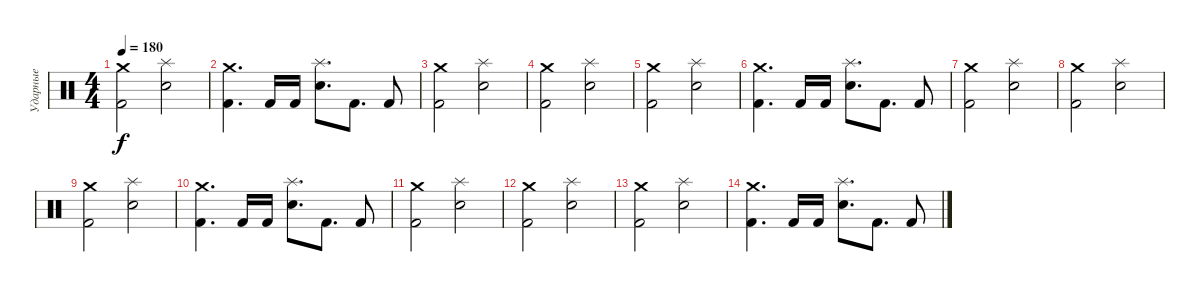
\track ("Ударные" "Ударные") {instrument percussion bank 127}
\staff {score}
\articulation defaults
\ts (4 4)
\tempo 180
\clef neutral
\ks c
("Crash medium (hit)" "Kick (hit) 2").2{dy f} ("Splash (hit)" "Snare (hit) 2").2 |
("Crash medium (hit)" "Kick (hit) 2").4{d} "Kick (hit) 2".16 "Kick (hit) 2".16 ("Splash (hit)" "Snare (hit) 2").8{d} "Kick (hit) 2".8{d} "Kick (hit) 2".8 |
("Crash medium (hit)" "Kick (hit) 2").2 ("Splash (hit)" "Snare (hit) 2").2 |
("Crash medium (hit)" "Kick (hit) 2").2 ("Splash (hit)" "Snare (hit) 2").2 |
("Crash medium (hit)" "Kick (hit) 2").2 ("Splash (hit)" "Snare (hit) 2").2 |
("Crash medium (hit)" "Kick (hit) 2").4{d} "Kick (hit) 2".16 "Kick (hit) 2".16 ("Splash (hit)" "Snare (hit) 2").8{d} "Kick (hit) 2".8{d} "Kick (hit) 2".8 |
("Crash medium (hit)" "Kick (hit) 2").2{volume 6} ("Splash (hit)" "Snare (hit) 2").2 |
("Crash medium (hit)" "Kick (hit) 2").2 ("Splash (hit)" "Snare (hit) 2").2 |
("Crash medium (hit)" "Kick (hit) 2").2 ("Splash (hit)" "Snare (hit) 2").2 |
("Crash medium (hit)" "Kick (hit) 2").4{d} "Kick (hit) 2".16 "Kick (hit) 2".16 ("Splash (hit)" "Snare (hit) 2").8{d} "Kick (hit) 2".8{d} "Kick (hit) 2".8 |
("Crash medium (hit)" "Kick (hit) 2").2{volume 3} ("Splash (hit)" "Snare (hit) 2").2 |
("Crash medium (hit)" "Kick (hit) 2").2 ("Splash (hit)" "Snare (hit) 2").2 |
("Crash medium (hit)" "Kick (hit) 2").2 ("Splash (hit)" "Snare (hit) 2").2 |
("Crash medium (hit)" "Kick (hit) 2").4{d volume 5} "Kick (hit) 2".16 "Kick (hit) 2".16 ("Splash (hit)" "Snare (hit) 2").8{d} "Kick (hit) 2".8{d} "Kick (hit) 2".8
